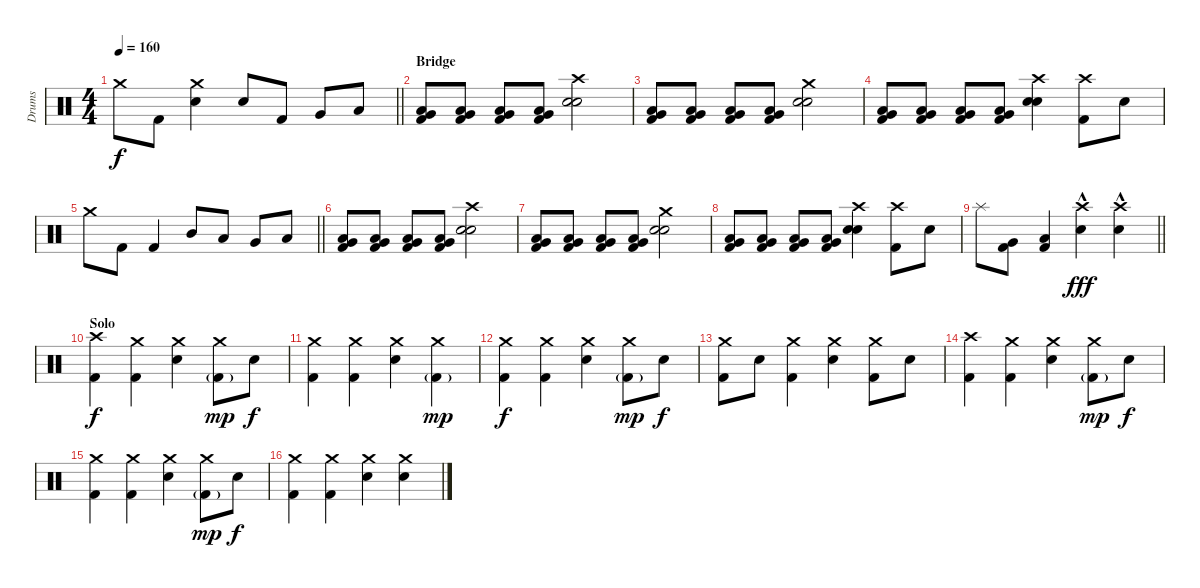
\track ("Drums" "Drums") {instrument percussion}
\staff {score}
\articulation defaults
\ts (4 4)
\tempo 160
\clef neutral
\barLineRight lightlight
\ks c "Crash medium (hit)".8{dy f} "Kick (hit) 2".8
("Crash medium (hit)" "Electric Snare (hit)").4 "Electric Snare (hit)".8 "Kick (hit) 2".8 "Very Low Tom (hit)".8 "Low Tom (hit)".8 |
\section ("" "Bridge")
("Very Low Tom (hit)" "Low Floor Tom (hit)" "Kick (hit) 2").8 ("Very Low Tom (hit)" "Low Floor Tom (hit)" "Kick (hit) 2").8 ("Very Low Tom (hit)" "Low Floor Tom (hit)" "Kick (hit) 2").8 ("Very Low Tom (hit)" "Low Floor Tom (hit)" "Kick (hit) 2").8 ("Crash high (hit)" "Hand Clap (hit)" "Electric Snare (hit)").2 |
("Very Low Tom (hit)" "Low Floor Tom (hit)" "Kick (hit) 2").8 ("Very Low Tom (hit)" "Low Floor Tom (hit)" "Kick (hit) 2").8 ("Very Low Tom (hit)" "Low Floor Tom (hit)" "Kick (hit) 2").8 ("Very Low Tom (hit)" "Low Floor Tom (hit)" "Kick (hit) 2").8 ("Crash medium (hit)" "Hand Clap (hit)" "Electric Snare (hit)").2 |
("Very Low Tom (hit)" "Low Floor Tom (hit)" "Kick (hit) 2").8 ("Very Low Tom (hit)" "Low Floor Tom (hit)" "Kick (hit) 2").8 ("Very Low Tom (hit)" "Low Floor Tom (hit)" "Kick (hit) 2").8 ("Very Low Tom (hit)" "Low Floor Tom (hit)" "Kick (hit) 2").8 ("Crash high (hit)" "Hand Clap (hit)" "Electric Snare (hit)").4 ("Crash high (hit)" "Kick (hit) 2").8 "Electric Snare (hit)".8 |
\barLineRight lightlight "Crash medium (hit)".8 "Kick (hit) 2".8 "Kick (hit) 2".4 "Mid Tom (hit)".8 "Low Tom (hit)".8 "Very Low Tom (hit)".8 "Low Floor Tom (hit)".8
|
("Very Low Tom (hit)" "Low Floor Tom (hit)" "Kick (hit) 2").8 ("Very Low Tom (hit)" "Low Floor Tom (hit)" "Kick (hit) 2").8 ("Very Low Tom (hit)" "Low Floor Tom (hit)" "Kick (hit) 2").8 ("Very Low Tom (hit)" "Low Floor Tom (hit)" "Kick (hit) 2").8 ("Crash high (hit)" "Hand Clap (hit)" "Electric Snare (hit)").2 |
("Very Low Tom (hit)" "Low Floor Tom (hit)" "Kick (hit) 2").8 ("Very Low Tom (hit)" "Low Floor Tom (hit)" "Kick (hit) 2").8 ("Very Low Tom (hit)" "Low Floor Tom (hit)" "Kick (hit) 2").8 ("Very Low Tom (hit)" "Low Floor Tom (hit)" "Kick (hit) 2").8 ("Crash medium (hit)" "Hand Clap (hit)" "Electric Snare (hit)").2 |
("Very Low Tom (hit)" "Low Floor Tom (hit)" "Kick (hit) 2").8 ("Very Low Tom (hit)" "Low Floor Tom (hit)" "Kick (hit) 2").8 ("Very Low Tom (hit)" "Low Floor Tom (hit)" "Kick (hit) 2").8 ("Very Low Tom (hit)" "Low Floor Tom (hit)" "Kick (hit) 2").8 ("Crash high (hit)" "Hand Clap (hit)" "Electric Snare (hit)").4 ("Crash high (hit)" "Kick (hit) 2").8 "Electric Snare (hit)".8 |
\barLineRight lightlight "Splash (hit)".8
("Very Low Tom (hit)" "Kick (hit) 2").8 ("Low Tom (hit)" "Kick (hit) 2").4 ("Crash high (hit)" "Electric Snare (hit)"{hac}).4{dy fff} ("Crash high (hit)" "Electric Snare (hit)"{hac}).4 |
\section ("" "Solo")
("Crash high (hit)" "Kick (hit) 2").4{dy f} ("Crash medium (hit)" "Kick (hit) 2").4 ("Crash medium (hit)" "Electric Snare (hit)").4 ("Crash medium (hit)" "Kick (hit) 2"{g}).8{dy mp} "Electric Snare (hit)".8{dy f} |
("Crash medium (hit)" "Kick (hit) 2").4 ("Crash medium (hit)" "Kick (hit) 2").4 ("Crash medium (hit)" "Electric Snare (hit)").4 ("Crash medium (hit)" "Kick (hit) 2"{g}).4{dy mp} |
("Crash medium (hit)" "Kick (hit) 2").4{dy f} ("Crash medium (hit)" "Kick (hit) 2").4 ("Crash medium (hit)" "Electric Snare (hit)").4 ("Crash medium (hit)" "Kick (hit) 2"{g}).8{dy mp} "Electric Snare (hit)".8{dy f} |
("Crash medium (hit)" "Kick (hit) 2").8 "Electric Snare (hit)".8 ("Crash medium (hit)" "Kick (hit) 2").4 ("Crash medium (hit)" "Electric Snare (hit)").4 ("Crash medium (hit)" "Kick (hit) 2").8 "Electric Snare (hit)".8 |
("Crash high (hit)" "Kick (hit) 2").4 ("Crash medium (hit)" "Kick (hit) 2").4 ("Crash medium (hit)" "Electric Snare (hit)").4 ("Crash medium (hit)" "Kick (hit) 2"{g}).8{dy mp} "Electric Snare (hit)".8{dy f} |
("Crash medium (hit)" "Kick (hit) 2").4 ("Crash medium (hit)" "Kick (hit) 2").4 ("Crash medium (hit)" "Electric Snare (hit)").4 ("Crash medium (hit)" "Kick (hit) 2"{g}).8{dy mp} "Electric Snare (hit)".8{dy f} |
("Crash medium (hit)" "Kick (hit) 2").4 ("Crash medium (hit)" "Kick (hit) 2").4 ("Crash medium (hit)" "Electric Snare (hit)").4 ("Crash medium (hit)" "Electric Snare (hit)").4
